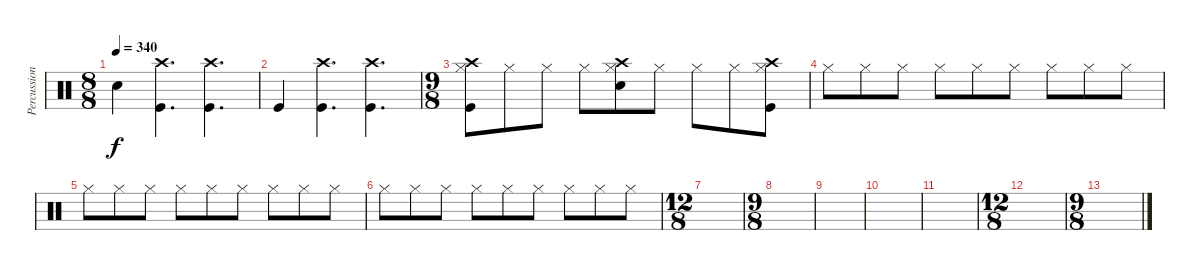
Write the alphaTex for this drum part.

\track ("Percussion" "Percussion") {instrument percussion}
\staff {score}
\articulation defaults
\ts (8 8)
\tempo 340
\clef neutral
\ks c "Electric Snare (hit)".4{dy f}
("Crash high (hit)" "Kick (hit)").4{d} ("Crash high (hit)" "Kick (hit)").4{d} |
"Kick (hit)".4 ("Crash high (hit)" "Kick (hit)").4{d} ("Crash high (hit)" "Kick (hit)").4{d} |
\ts (9 8)
("Kick (hit)" "Crash high (hit)" "Hi-Hat (closed)").8 "Hi-Hat (closed)".8 "Hi-Hat (closed)".8 "Hi-Hat (closed)".8 ("Electric Snare (hit)" "Crash high (hit)" "Hi-Hat (closed)").8 "Hi-Hat (closed)".8 "Hi-Hat (closed)".8 "Hi-Hat (closed)".8 ("Kick (hit)" "Crash high (hit)" "Hi-Hat (closed)").8 |
"Hi-Hat (closed)".8 "Hi-Hat (closed)".8 "Hi-Hat (closed)".8 "Hi-Hat (closed)".8 "Hi-Hat (closed)".8 "Hi-Hat (closed)".8 "Hi-Hat (closed)".8 "Hi-Hat (closed)".8 "Hi-Hat (closed)".8 |
"Hi-Hat (closed)".8 "Hi-Hat (closed)".8 "Hi-Hat (closed)".8 "Hi-Hat (closed)".8 "Hi-Hat (closed)".8 "Hi-Hat (closed)".8 "Hi-Hat (closed)".8 "Hi-Hat (closed)".8 "Hi-Hat (closed)".8 |
"Hi-Hat (closed)".8 "Hi-Hat (closed)".8 "Hi-Hat (closed)".8 "Hi-Hat (closed)".8 "Hi-Hat (closed)".8 "Hi-Hat (closed)".8 "Hi-Hat (closed)".8 "Hi-Hat (closed)".8 "Hi-Hat (closed)".8 |
\ts (12 8)
|
\ts (9 8)
|
|
|
|
\ts (12 8)
|
\ts (9 8)
